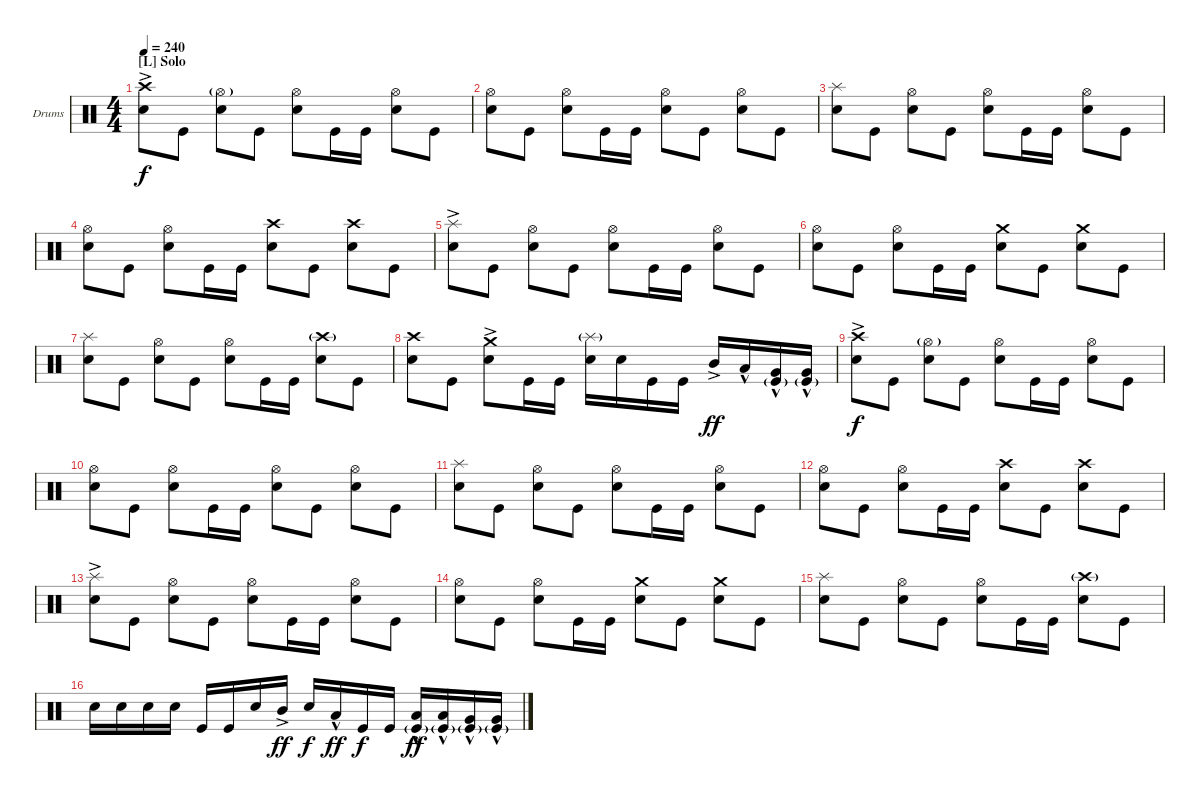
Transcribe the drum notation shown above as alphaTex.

\defaultSystemsLayout 4
\bracketExtendMode groupsimilarinstruments
\firstSystemTrackNameOrientation horizontal
\otherSystemsTrackNameOrientation horizontal
\track ("Drumkit" "Drums") {instrument percussion}
\staff {score}
\articulation defaults
\ts (4 4)
\section ("L" "Solo")
\tempo 240
\clef neutral
\ks c
("Crash high (hit)"{ac} "Snare (hit) 2").8{dy f} "Kick (hit)".8 ("Snare (hit) 2" "Hi-Hat (open)"{g}).8 "Kick (hit)".8 ("Snare (hit) 2" "Hi-Hat (open)").8 "Kick (hit)".16 "Kick (hit)".16 ("Snare (hit) 2" "Hi-Hat (open)").8 "Kick (hit)".8 |
("Snare (hit) 2" "Hi-Hat (open)").8 "Kick (hit)".8 ("Snare (hit) 2" "Hi-Hat (open)").8 "Kick (hit)".16 "Kick (hit)".16 ("Snare (hit) 2" "Hi-Hat (open)").8 "Kick (hit)".8 ("Snare (hit) 2" "Hi-Hat (open)").8 "Kick (hit)".8 |
("Snare (hit) 2" "Splash (hit)").8 "Kick (hit)".8 ("Snare (hit) 2" "Hi-Hat (open)").8 "Kick (hit)".8 ("Snare (hit) 2" "Hi-Hat (open)").8 "Kick (hit)".16 "Kick (hit)".16 ("Snare (hit) 2" "Hi-Hat (open)").8 "Kick (hit)".8 |
("Snare (hit) 2" "Hi-Hat (open)").8 "Kick (hit)".8 ("Snare (hit) 2" "Hi-Hat (open)").8 "Kick (hit)".16 "Kick (hit)".16 ("Snare (hit) 2" "Crash high (hit)").8 "Kick (hit)".8 ("Snare (hit) 2" "Crash high (hit)").8 "Kick (hit)".8 |
("Snare (hit) 2" "Splash (hit)"{ac}).8 "Kick (hit)".8 ("Snare (hit) 2" "Hi-Hat (open)").8 "Kick (hit)".8 ("Snare (hit) 2" "Hi-Hat (open)").8 "Kick (hit)".16 "Kick (hit)".16 ("Snare (hit) 2" "Hi-Hat (open)").8 "Kick (hit)".8 |
("Snare (hit) 2" "Hi-Hat (open)").8 "Kick (hit)".8 ("Snare (hit) 2" "Hi-Hat (open)").8 "Kick (hit)".16 "Kick (hit)".16 ("Snare (hit) 2" "Crash medium (hit)").8 "Kick (hit)".8 ("Snare (hit) 2" "Crash medium (hit)").8 "Kick (hit)".8 |
("Snare (hit) 2" "Splash (hit)").8 "Kick (hit)".8 ("Snare (hit) 2" "Hi-Hat (open)").8 "Kick (hit)".8 ("Snare (hit) 2" "Hi-Hat (open)").8 "Kick (hit)".16 "Kick (hit)".16 ("Snare (hit) 2" "Crash high (hit)"{g}).8 "Kick (hit)".8 |
("Snare (hit) 2" "Crash high (hit)").8 "Kick (hit)".8 ("Snare (hit) 2" "Crash medium (hit)"{ac}).8 "Kick (hit)".16 "Kick (hit)".16 ("Snare (hit) 2" "Splash (hit)"{g}).16 "Snare (hit) 2".16 "Kick (hit)".16 "Kick (hit)".16 "Mid Tom (hit)"{ac}.16{dy ff} "Low Tom (hit)"{hac}.16 ("Kick (hit)"{g} "Very Low Tom (hit)"{hac}).16 ("Kick (hit)"{g} "Very Low Tom (hit)"{hac}).16 |
("Crash high (hit)"{ac} "Snare (hit) 2").8{dy f} "Kick (hit)".8 ("Snare (hit) 2" "Hi-Hat (open)"{g}).8 "Kick (hit)".8 ("Snare (hit) 2" "Hi-Hat (open)").8 "Kick (hit)".16 "Kick (hit)".16 ("Snare (hit) 2" "Hi-Hat (open)").8 "Kick (hit)".8 |
("Snare (hit) 2" "Hi-Hat (open)").8 "Kick (hit)".8 ("Snare (hit) 2" "Hi-Hat (open)").8 "Kick (hit)".16 "Kick (hit)".16 ("Snare (hit) 2" "Hi-Hat (open)").8 "Kick (hit)".8 ("Snare (hit) 2" "Hi-Hat (open)").8 "Kick (hit)".8 |
("Snare (hit) 2" "Splash (hit)").8 "Kick (hit)".8 ("Snare (hit) 2" "Hi-Hat (open)").8 "Kick (hit)".8 ("Snare (hit) 2" "Hi-Hat (open)").8 "Kick (hit)".16 "Kick (hit)".16 ("Snare (hit) 2" "Hi-Hat (open)").8 "Kick (hit)".8 |
("Snare (hit) 2" "Hi-Hat (open)").8 "Kick (hit)".8 ("Snare (hit) 2" "Hi-Hat (open)").8 "Kick (hit)".16 "Kick (hit)".16 ("Snare (hit) 2" "Crash high (hit)").8 "Kick (hit)".8 ("Snare (hit) 2" "Crash high (hit)").8 "Kick (hit)".8 |
("Snare (hit) 2" "Splash (hit)"{ac}).8 "Kick (hit)".8 ("Snare (hit) 2" "Hi-Hat (open)").8 "Kick (hit)".8 ("Snare (hit) 2" "Hi-Hat (open)").8 "Kick (hit)".16 "Kick (hit)".16 ("Snare (hit) 2" "Hi-Hat (open)").8 "Kick (hit)".8 |
("Snare (hit) 2" "Hi-Hat (open)").8 "Kick (hit)".8 ("Snare (hit) 2" "Hi-Hat (open)").8 "Kick (hit)".16 "Kick (hit)".16 ("Snare (hit) 2" "Crash medium (hit)").8 "Kick (hit)".8 ("Snare (hit) 2" "Crash medium (hit)").8 "Kick (hit)".8 |
("Snare (hit) 2" "Splash (hit)").8 "Kick (hit)".8 ("Snare (hit) 2" "Hi-Hat (open)").8 "Kick (hit)".8 ("Snare (hit) 2" "Hi-Hat (open)").8 "Kick (hit)".16 "Kick (hit)".16 ("Snare (hit) 2" "Crash high (hit)"{g}).8 "Kick (hit)".8 |
"Snare (hit) 2".16 "Snare (hit) 2".16 "Snare (hit) 2".16 "Snare (hit) 2".16 "Kick (hit)".16 "Kick (hit)".16 "Snare (hit) 2".16 "Mid Tom (hit)"{ac}.16{dy ff} "Snare (hit) 2".16{dy f} "Low Tom (hit)"{hac}.16{dy ff} "Kick (hit)".16{dy f} "Kick (hit)".16 ("Kick (hit)"{g} "Low Tom (hit)"{hac}).16{dy ff} ("Kick (hit)"{g} "Low Tom (hit)"{hac}).16 ("Kick (hit)"{g} "Very Low Tom (hit)"{hac}).16 ("Kick (hit)"{g} "Very Low Tom (hit)"{hac}).16
